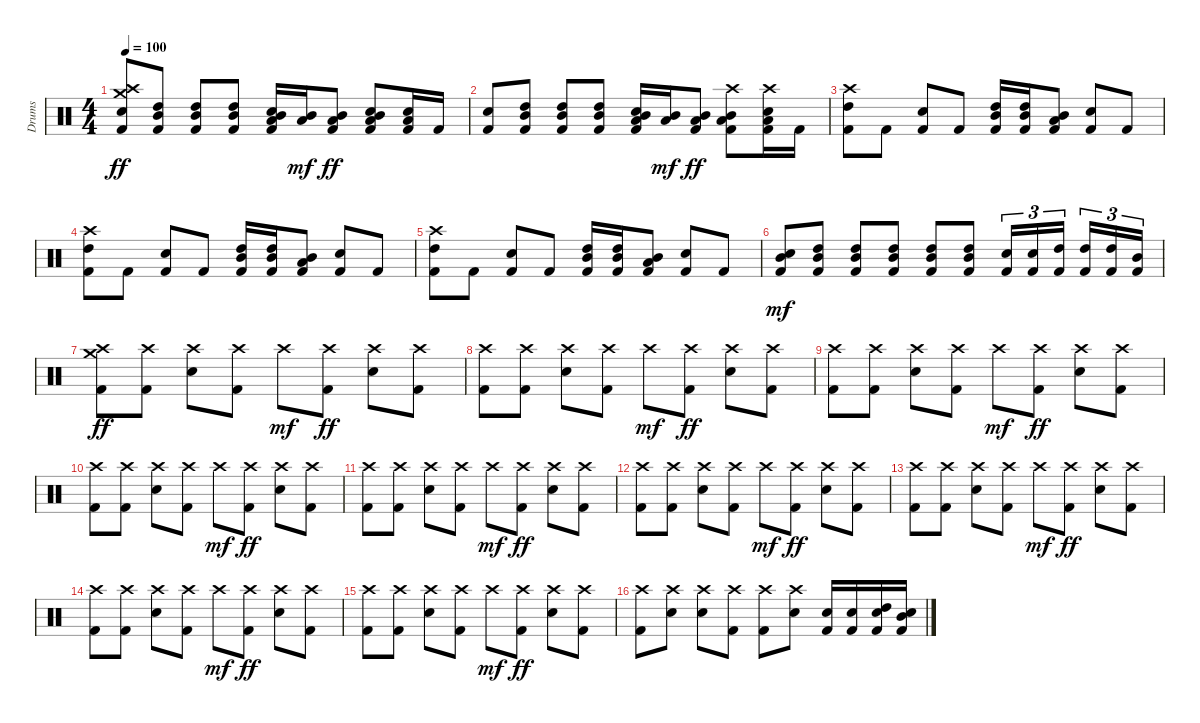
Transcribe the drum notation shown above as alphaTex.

\track ("Drums" "Drums") {instrument percussion}
\staff {score}
\articulation defaults
\ts (4 4)
\tempo 100
\clef neutral
\ks c
("Electric Snare (hit)" "Crash medium (hit)" "Crash high (hit)" "Kick (hit) 2").8{dy ff} ("High Tom (hit)" "Mid Tom (hit)" "Kick (hit) 2").8 ("High Tom (hit)" "Mid Tom (hit)" "Kick (hit) 2").8 ("High Tom (hit)" "Mid Tom (hit)" "Kick (hit) 2").8 ("Mid Tom (hit)" "Low Tom (hit)" "Electric Snare (hit)" "Kick (hit) 2").16 ("Mid Tom (hit)" "Low Tom (hit)").16{dy mf} ("Mid Tom (hit)" "Low Tom (hit)" "Kick (hit) 2").8{dy ff} ("Mid Tom (hit)" "Low Tom (hit)" "Electric Snare (hit)" "Kick (hit) 2").8 ("Low Tom (hit)" "Metronome (bell)" "Kick (hit) 2").16 "Kick (hit) 2".16 |
("Electric Snare (hit)" "Kick (hit) 2").8 ("High Tom (hit)" "Mid Tom (hit)" "Kick (hit) 2").8 ("High Tom (hit)" "Mid Tom (hit)" "Kick (hit) 2").8 ("High Tom (hit)" "Mid Tom (hit)" "Kick (hit) 2").8 ("Mid Tom (hit)" "Low Tom (hit)" "Electric Snare (hit)" "Kick (hit) 2").16 ("Mid Tom (hit)" "Low Tom (hit)").16{dy mf} ("Mid Tom (hit)" "Low Tom (hit)" "Kick (hit) 2").8{dy ff} ("Mid Tom (hit)" "Low Tom (hit)" "Crash high (hit)" "Kick (hit) 2").8 ("Low Tom (hit)" "Metronome (bell)" "Crash high (hit)" "Kick (hit) 2").16 "Kick (hit) 2".16 |
("Crash high (hit)" "High Tom (hit)" "Kick (hit) 2").8 "Kick (hit) 2".8 ("Electric Snare (hit)" "Kick (hit) 2").8 "Kick (hit) 2".8 ("Mid Tom (hit)" "High Tom (hit)" "Kick (hit) 2").16 ("Mid Tom (hit)" "High Tom (hit)" "Kick (hit) 2").16 ("Low Tom (hit)" "Mid Tom (hit)" "Kick (hit) 2").8 ("Electric Snare (hit)" "Kick (hit) 2").8 "Kick (hit) 2".8 |
("Crash high (hit)" "High Tom (hit)" "Kick (hit) 2").8 "Kick (hit) 2".8 ("Electric Snare (hit)" "Kick (hit) 2").8 "Kick (hit) 2".8 ("Mid Tom (hit)" "High Tom (hit)" "Kick (hit) 2").16 ("Mid Tom (hit)" "High Tom (hit)" "Kick (hit) 2").16 ("Low Tom (hit)" "Mid Tom (hit)" "Kick (hit) 2").8 ("Electric Snare (hit)" "Kick (hit) 2").8 "Kick (hit) 2".8 |
("Crash high (hit)" "High Tom (hit)" "Kick (hit) 2").8 "Kick (hit) 2".8 ("Electric Snare (hit)" "Kick (hit) 2").8 "Kick (hit) 2".8 ("Mid Tom (hit)" "High Tom (hit)" "Kick (hit) 2").16 ("Mid Tom (hit)" "High Tom (hit)" "Kick (hit) 2").16 ("Low Tom (hit)" "Mid Tom (hit)" "Kick (hit) 2").8 ("Electric Snare (hit)" "Kick (hit) 2").8 "Kick (hit) 2".8 |
("Electric Snare (hit)" "Mid Tom (hit)" "Kick (hit) 2").8{dy mf} ("High Tom (hit)" "Mid Tom (hit)" "Kick (hit) 2").8 ("High Tom (hit)" "Mid Tom (hit)" "Kick (hit) 2").8 ("High Tom (hit)" "Mid Tom (hit)" "Kick (hit) 2").8 ("High Tom (hit)" "Mid Tom (hit)" "Kick (hit) 2").8 ("High Tom (hit)" "Mid Tom (hit)" "Kick (hit) 2").8 ("Electric Snare (hit)" "Kick (hit) 2").16{tu (3 2)} ("Electric Snare (hit)" "Kick (hit) 2").16{tu (3 2)} ("High Tom (hit)" "Kick (hit) 2").16{tu (3 2) beam splitsecondary} ("High Tom (hit)" "Kick (hit) 2").16{tu (3 2)} ("High Tom (hit)" "Kick (hit) 2").16{tu (3 2)} ("Mid Tom (hit)" "Kick (hit) 2").16{tu (3 2)} |
("Crash high (hit)" "Crash medium (hit)" "Kick (hit) 2").8{dy ff} ("Crash high (hit)" "Kick (hit) 2").8 ("Crash high (hit)" "Electric Snare (hit)").8 ("Crash high (hit)" "Kick (hit) 2").8 "Crash high (hit)".8{dy mf} ("Crash high (hit)" "Kick (hit) 2").8{dy ff} ("Crash high (hit)" "Electric Snare (hit)").8 ("Crash high (hit)" "Kick (hit) 2").8 |
("Crash high (hit)" "Kick (hit) 2").8 ("Crash high (hit)" "Kick (hit) 2").8 ("Crash high (hit)" "Electric Snare (hit)").8 ("Crash high (hit)" "Kick (hit) 2").8 "Crash high (hit)".8{dy mf} ("Crash high (hit)" "Kick (hit) 2").8{dy ff} ("Crash high (hit)" "Electric Snare (hit)").8 ("Crash high (hit)" "Kick (hit) 2").8 |
("Crash high (hit)" "Kick (hit) 2").8 ("Crash high (hit)" "Kick (hit) 2").8 ("Crash high (hit)" "Electric Snare (hit)").8 ("Crash high (hit)" "Kick (hit) 2").8 "Crash high (hit)".8{dy mf} ("Crash high (hit)" "Kick (hit) 2").8{dy ff} ("Crash high (hit)" "Electric Snare (hit)").8 ("Crash high (hit)" "Kick (hit) 2").8 |
("Crash high (hit)" "Kick (hit) 2").8 ("Crash high (hit)" "Kick (hit) 2").8 ("Crash high (hit)" "Electric Snare (hit)").8 ("Crash high (hit)" "Kick (hit) 2").8 "Crash high (hit)".8{dy mf} ("Crash high (hit)" "Kick (hit) 2").8{dy ff} ("Crash high (hit)" "Electric Snare (hit)").8 ("Crash high (hit)" "Kick (hit) 2").8 |
("Crash high (hit)" "Kick (hit) 2").8 ("Crash high (hit)" "Kick (hit) 2").8 ("Crash high (hit)" "Electric Snare (hit)").8 ("Crash high (hit)" "Kick (hit) 2").8 "Crash high (hit)".8{dy mf} ("Crash high (hit)" "Kick (hit) 2").8{dy ff} ("Crash high (hit)" "Electric Snare (hit)").8 ("Crash high (hit)" "Kick (hit) 2").8 |
("Crash high (hit)" "Kick (hit) 2").8 ("Crash high (hit)" "Kick (hit) 2").8 ("Crash high (hit)" "Electric Snare (hit)").8 ("Crash high (hit)" "Kick (hit) 2").8 "Crash high (hit)".8{dy mf} ("Crash high (hit)" "Kick (hit) 2").8{dy ff} ("Crash high (hit)" "Electric Snare (hit)").8 ("Crash high (hit)" "Kick (hit) 2").8 |
("Crash high (hit)" "Kick (hit) 2").8 ("Crash high (hit)" "Kick (hit) 2").8 ("Crash high (hit)" "Electric Snare (hit)").8 ("Crash high (hit)" "Kick (hit) 2").8 "Crash high (hit)".8{dy mf} ("Crash high (hit)" "Kick (hit) 2").8{dy ff} ("Crash high (hit)" "Electric Snare (hit)").8 ("Crash high (hit)" "Kick (hit) 2").8 |
("Crash high (hit)" "Kick (hit) 2").8 ("Crash high (hit)" "Kick (hit) 2").8 ("Crash high (hit)" "Electric Snare (hit)").8 ("Crash high (hit)" "Kick (hit) 2").8 "Crash high (hit)".8{dy mf} ("Crash high (hit)" "Kick (hit) 2").8{dy ff} ("Crash high (hit)" "Electric Snare (hit)").8 ("Crash high (hit)" "Kick (hit) 2").8 |
("Crash high (hit)" "Kick (hit) 2").8 ("Crash high (hit)" "Kick (hit) 2").8 ("Crash high (hit)" "Electric Snare (hit)").8 ("Crash high (hit)" "Kick (hit) 2").8 "Crash high (hit)".8{dy mf} ("Crash high (hit)" "Kick (hit) 2").8{dy ff} ("Crash high (hit)" "Electric Snare (hit)").8 ("Crash high (hit)" "Kick (hit) 2").8 |
("Crash high (hit)" "Kick (hit) 2").8 ("Crash high (hit)" "Electric Snare (hit)").8 ("Crash high (hit)" "Electric Snare (hit)").8 ("Crash high (hit)" "Kick (hit) 2").8 ("Crash high (hit)" "Kick (hit) 2").8 ("Crash high (hit)" "Electric Snare (hit)").8 ("Electric Snare (hit)" "Kick (hit) 2").16 ("Electric Snare (hit)" "Kick (hit) 2").16 ("High Tom (hit)" "Electric Snare (hit)" "Kick (hit) 2").16 ("Mid Tom (hit)" "Electric Snare (hit)" "Kick (hit) 2").16
